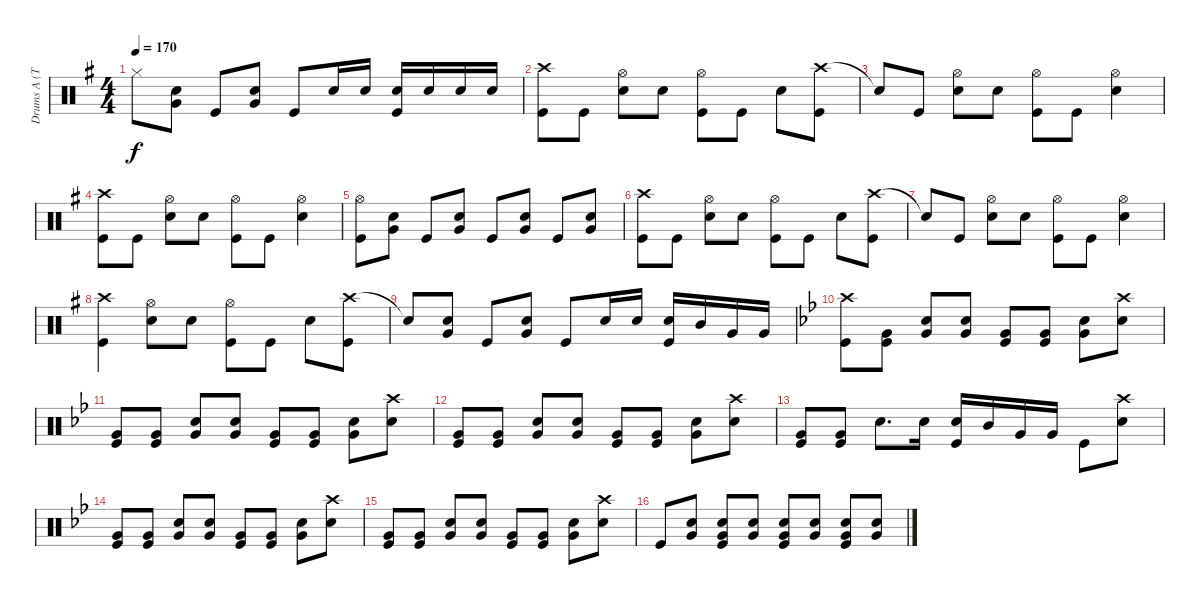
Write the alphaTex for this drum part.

\track ("Drums A (Tainaka Ritsu)" "Drums A (T") {instrument percussion}
\staff {score}
\articulation defaults
\ts (4 4)
\tempo 170
\clef neutral
\ks g "Hi-Hat (closed)".8{dy f}
("Snare (hit) 2" "Very Low Tom (hit)").8 "Kick (hit)".8 ("Snare (hit) 2" "Very Low Tom (hit)").8 "Kick (hit)".8 "Snare (hit) 2".16 "Snare (hit) 2".16 ("Snare (hit) 2" "Kick (hit)").16 "Snare (hit) 2".16 "Snare (hit) 2".16 "Snare (hit) 2".16 |
("Crash high (hit)" "Kick (hit)").8 "Kick (hit)".8 ("Hi-Hat (open)" "Snare (hit) 2").8 "Snare (hit) 2".8 ("Hi-Hat (open)" "Kick (hit)").8 "Kick (hit)".8 "Snare (hit) 2".8 ("Crash high (hit)" "Kick (hit)").8 |
"Snare (hit)"{t}.8 "Kick (hit)".8 ("Hi-Hat (open)" "Snare (hit) 2").8 "Snare (hit) 2".8 ("Hi-Hat (open)" "Kick (hit)").8 "Kick (hit)".8 ("Hi-Hat (open)" "Snare (hit) 2").4 |
("Crash high (hit)" "Kick (hit)").8 "Kick (hit)".8 ("Hi-Hat (open)" "Snare (hit) 2").8 "Snare (hit) 2".8 ("Hi-Hat (open)" "Kick (hit)").8 "Kick (hit)".8 ("Hi-Hat (open)" "Snare (hit) 2").4 |
("Hi-Hat (open)" "Kick (hit)").8 ("Snare (hit) 2" "Very Low Tom (hit)").8 "Kick (hit)".8 ("Snare (hit) 2" "Very Low Tom (hit)").8 "Kick (hit)".8 ("Snare (hit) 2" "Very Low Tom (hit)").8 "Kick (hit)".8 ("Snare (hit) 2" "Very Low Tom (hit)").8 |
("Crash high (hit)" "Kick (hit)").8 "Kick (hit)".8 ("Hi-Hat (open)" "Snare (hit) 2").8 "Snare (hit) 2".8 ("Hi-Hat (open)" "Kick (hit)").8 "Kick (hit)".8 "Snare (hit) 2".8 ("Crash high (hit)" "Kick (hit)").8 |
"Snare (hit)"{t}.8 "Kick (hit)".8 ("Hi-Hat (open)" "Snare (hit) 2").8 "Snare (hit) 2".8 ("Hi-Hat (open)" "Kick (hit)").8 "Kick (hit)".8 ("Hi-Hat (open)" "Snare (hit) 2").4 |
("Crash high (hit)" "Kick (hit)").4 ("Hi-Hat (open)" "Snare (hit) 2").8 "Snare (hit) 2".8 ("Hi-Hat (open)" "Kick (hit)").8 "Kick (hit)".8 "Snare (hit) 2".8 ("Crash high (hit)" "Kick (hit)").8 |
"Snare (hit)"{t}.8 ("Snare (hit) 2" "Very Low Tom (hit)").8 "Kick (hit)".8 ("Snare (hit) 2" "Very Low Tom (hit)").8 "Kick (hit)".8 "Snare (hit) 2".16 "Snare (hit) 2".16 ("Snare (hit) 2" "Kick (hit)").16 "Mid Tom (hit)".16 "Very Low Tom (hit)".16 "Very Low Tom (hit)".16 |
\ks bb
("Crash high (hit)" "Kick (hit)").8 ("Very Low Tom (hit)" "Kick (hit)").8 ("Snare (hit) 2" "Very Low Tom (hit)").8 ("Snare (hit) 2" "Very Low Tom (hit)").8 ("Very Low Tom (hit)" "Kick (hit)").8 ("Very Low Tom (hit)" "Kick (hit)").8 ("Snare (hit) 2" "Very Low Tom (hit)").8 ("Crash high (hit)" "Snare (hit) 2").8 |
("Very Low Tom (hit)" "Kick (hit)").8 ("Very Low Tom (hit)" "Kick (hit)").8 ("Snare (hit) 2" "Very Low Tom (hit)").8 ("Snare (hit) 2" "Very Low Tom (hit)").8 ("Very Low Tom (hit)" "Kick (hit)").8 ("Very Low Tom (hit)" "Kick (hit)").8 ("Snare (hit) 2" "Very Low Tom (hit)").8 ("Crash high (hit)" "Snare (hit) 2").8 |
("Very Low Tom (hit)" "Kick (hit)").8 ("Very Low Tom (hit)" "Kick (hit)").8 ("Snare (hit) 2" "Very Low Tom (hit)").8 ("Snare (hit) 2" "Very Low Tom (hit)").8 ("Very Low Tom (hit)" "Kick (hit)").8 ("Very Low Tom (hit)" "Kick (hit)").8 ("Snare (hit) 2" "Very Low Tom (hit)").8 ("Crash high (hit)" "Snare (hit) 2").8 |
("Very Low Tom (hit)" "Kick (hit)").8 ("Very Low Tom (hit)" "Kick (hit)").8 "Snare (hit) 2".8{d} "Snare (hit) 2".16 ("Snare (hit) 2" "Kick (hit)").16 "Mid Tom (hit)".16 "Very Low Tom (hit)".16 "Very Low Tom (hit)".16 "Kick (hit)".8 ("Crash high (hit)" "Snare (hit) 2").8 |
("Very Low Tom (hit)" "Kick (hit)").8 ("Very Low Tom (hit)" "Kick (hit)").8 ("Snare (hit) 2" "Very Low Tom (hit)").8 ("Snare (hit) 2" "Very Low Tom (hit)").8 ("Very Low Tom (hit)" "Kick (hit)").8 ("Very Low Tom (hit)" "Kick (hit)").8 ("Snare (hit) 2" "Very Low Tom (hit)").8 ("Crash high (hit)" "Snare (hit) 2").8 |
("Very Low Tom (hit)" "Kick (hit)").8 ("Very Low Tom (hit)" "Kick (hit)").8 ("Snare (hit) 2" "Very Low Tom (hit)").8 ("Snare (hit) 2" "Very Low Tom (hit)").8 ("Very Low Tom (hit)" "Kick (hit)").8 ("Very Low Tom (hit)" "Kick (hit)").8 ("Snare (hit) 2" "Very Low Tom (hit)").8 ("Crash high (hit)" "Snare (hit) 2").8 |
"Kick (hit)".8 ("Snare (hit) 2" "Very Low Tom (hit)").8 ("Snare (hit) 2" "Very Low Tom (hit)" "Kick (hit)").8 ("Snare (hit) 2" "Very Low Tom (hit)").8 ("Snare (hit) 2" "Very Low Tom (hit)" "Kick (hit)").8 ("Snare (hit) 2" "Very Low Tom (hit)").8 ("Snare (hit) 2" "Very Low Tom (hit)" "Kick (hit)").8 ("Snare (hit) 2" "Very Low Tom (hit)").8
